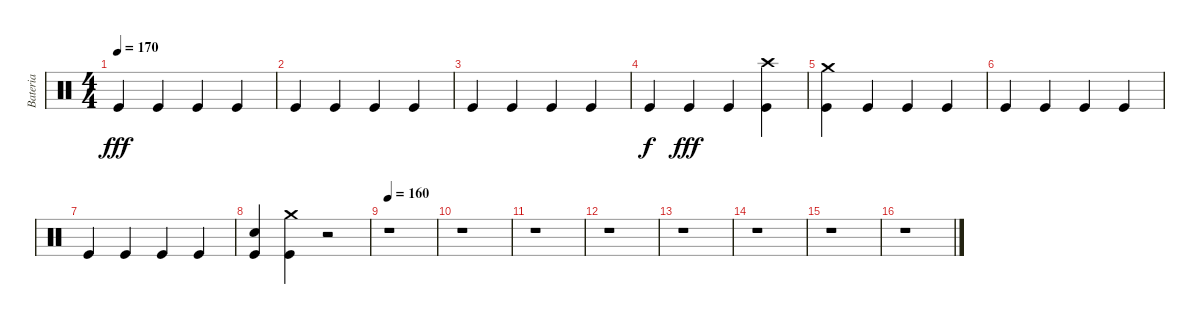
\track ("Bateria" "Bateria") {instrument percussion}
\staff {score}
\articulation defaults
\ts (4 4)
\tempo 170
\clef neutral
\ks c "Kick (hit)".4{dy fff} "Kick (hit)".4 "Kick (hit)".4 "Kick (hit)".4
|
"Kick (hit)".4 "Kick (hit)".4 "Kick (hit)".4 "Kick (hit)".4 |
"Kick (hit)".4 "Kick (hit)".4 "Kick (hit)".4 "Kick (hit)".4 |
"Kick (hit)".4{dy f} "Kick (hit)".4{dy fff} "Kick (hit)".4 ("Kick (hit)" "Crash high (hit)").4 |
("Crash medium (hit)" "Kick (hit)").4 "Kick (hit)".4 "Kick (hit)".4 "Kick (hit)".4 |
"Kick (hit)".4 "Kick (hit)".4 "Kick (hit)".4 "Kick (hit)".4 |
"Kick (hit)".4 "Kick (hit)".4 "Kick (hit)".4 "Kick (hit)".4 |
("Kick (hit)" "Snare (hit) 2").4 ("Kick (hit)" "Crash medium (hit)").4 r.2 |
\tempo 160
r.1 |
r.1 |
r.1 |
r.1 |
r.1 |
r.1 |
r.1 |
r.1
